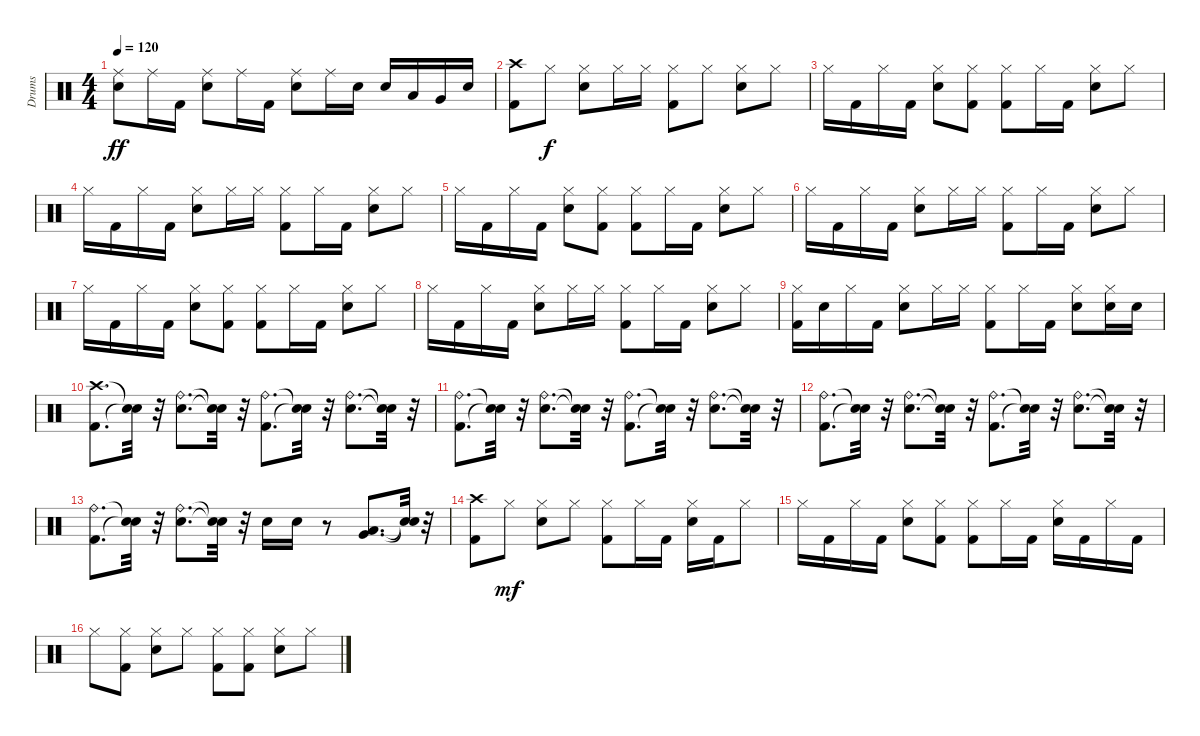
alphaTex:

\track ("Drums" "Drums") {instrument percussion}
\staff {score}
\articulation defaults
\ts (4 4)
\tempo 120
\clef neutral
\ks c
("Ride (middle)" "Snare (hit) 2").8{dy ff} "Ride (middle)".16 "Kick (hit) 2".16 ("Snare (hit) 2" "Ride (middle)").8 "Ride (middle)".16 "Kick (hit) 2".16 ("Ride (middle)" "Snare (hit) 2").8 "Ride (middle)".16 "Snare (hit) 2".16 "Snare (hit) 2".16 "Low Tom (hit)".16 "Very Low Tom (hit)".16 "Snare (hit) 2".16 |
("Crash high (hit)" "Kick (hit) 2").8 "Hi-Hat (closed)".8{dy f} ("Snare (hit) 2" "Hi-Hat (closed)").8 "Hi-Hat (closed)".16 "Hi-Hat (closed)".16 ("Hi-Hat (closed)" "Kick (hit) 2").8 "Hi-Hat (closed)".8 ("Snare (hit) 2" "Hi-Hat (closed)").8 "Hi-Hat (closed)".8 |
"Hi-Hat (closed)".16 "Kick (hit) 2".16 "Hi-Hat (closed)".16 "Kick (hit) 2".16 ("Snare (hit) 2" "Hi-Hat (closed)").8 ("Hi-Hat (closed)" "Kick (hit) 2").8 ("Hi-Hat (closed)" "Kick (hit) 2").8 "Hi-Hat (closed)".16 "Kick (hit) 2".16 ("Hi-Hat (closed)" "Snare (hit) 2").8 "Hi-Hat (closed)".8 |
"Hi-Hat (closed)".16 "Kick (hit) 2".16 "Hi-Hat (closed)".16 "Kick (hit) 2".16 ("Snare (hit) 2" "Hi-Hat (closed)").8 "Hi-Hat (closed)".16 "Hi-Hat (closed)".16 ("Kick (hit) 2" "Hi-Hat (closed)").8 "Hi-Hat (closed)".16 "Kick (hit) 2".16 ("Hi-Hat (closed)" "Snare (hit) 2").8 "Hi-Hat (closed)".8 |
"Hi-Hat (closed)".16 "Kick (hit) 2".16 "Hi-Hat (closed)".16 "Kick (hit) 2".16 ("Hi-Hat (closed)" "Snare (hit) 2").8 ("Kick (hit) 2" "Hi-Hat (closed)").8 ("Kick (hit) 2" "Hi-Hat (closed)").8 "Hi-Hat (closed)".16 "Kick (hit) 2".16 ("Hi-Hat (closed)" "Snare (hit) 2").8 "Hi-Hat (closed)".8 |
"Hi-Hat (closed)".16 "Kick (hit) 2".16 "Hi-Hat (closed)".16 "Kick (hit) 2".16 ("Hi-Hat (closed)" "Snare (hit) 2").8 "Hi-Hat (closed)".16 "Hi-Hat (closed)".16 ("Kick (hit) 2" "Hi-Hat (closed)").8 "Hi-Hat (closed)".16 "Kick (hit) 2".16 ("Hi-Hat (closed)" "Snare (hit) 2").8 "Hi-Hat (closed)".8 |
"Hi-Hat (closed)".16 "Kick (hit) 2".16 "Hi-Hat (closed)".16 "Kick (hit) 2".16 ("Snare (hit) 2" "Hi-Hat (closed)").8 ("Hi-Hat (closed)" "Kick (hit) 2").8 ("Hi-Hat (closed)" "Kick (hit) 2").8 "Hi-Hat (closed)".16 "Kick (hit) 2".16 ("Snare (hit) 2" "Hi-Hat (closed)").8 "Hi-Hat (closed)".8 |
"Hi-Hat (closed)".16 "Kick (hit) 2".16 "Hi-Hat (closed)".16 "Kick (hit) 2".16 ("Hi-Hat (closed)" "Snare (hit) 2").8 "Hi-Hat (closed)".16 "Hi-Hat (closed)".16 ("Kick (hit) 2" "Hi-Hat (closed)").8 "Hi-Hat (closed)".16 "Kick (hit) 2".16 ("Hi-Hat (closed)" "Snare (hit) 2").8 "Hi-Hat (closed)".8 |
("Kick (hit) 2" "Hi-Hat (closed)").16 "Snare (hit) 2".16 "Hi-Hat (closed)".16 "Kick (hit) 2".16 ("Snare (hit) 2" "Hi-Hat (closed)").8 "Hi-Hat (closed)".16 "Hi-Hat (closed)".16 ("Kick (hit) 2" "Hi-Hat (closed)").8 "Hi-Hat (closed)".16 "Kick (hit) 2".16 ("Hi-Hat (closed)" "Snare (hit) 2").8 ("Hi-Hat (closed)" "Snare (hit) 2").16 "Snare (hit) 2".16 |
("Kick (hit) 2" "Crash high (hit)").8{d} ("Snare (hit)"{t} "Snare (hit)"{t}).32 r.32 ("Ride (bell)" "Snare (hit) 2").8{d} ("Snare (hit)"{t} "Snare (hit)"{t}).32 r.32 ("Ride (bell)" "Kick (hit) 2").8{d} ("Snare (hit)"{t} "Snare (hit)"{t}).32 r.32 ("Ride (bell)" "Snare (hit) 2").8{d} ("Snare (hit)"{t} "Snare (hit)"{t}).32 r.32 |
("Kick (hit) 2" "Ride (bell)").8{d} ("Snare (hit)"{t} "Snare (hit)"{t}).32 r.32 ("Ride (bell)" "Snare (hit) 2").8{d} ("Snare (hit)"{t} "Snare (hit)"{t}).32 r.32 ("Kick (hit) 2" "Ride (bell)").8{d} ("Snare (hit)"{t} "Snare (hit)"{t}).32 r.32 ("Snare (hit) 2" "Ride (bell)").8{d} ("Snare (hit)"{t} "Snare (hit)"{t}).32 r.32 |
("Ride (bell)" "Kick (hit) 2").8{d} ("Snare (hit)"{t} "Snare (hit)"{t}).32 r.32 ("Snare (hit) 2" "Ride (bell)").8{d} ("Snare (hit)"{t} "Snare (hit)"{t}).32 r.32 ("Ride (bell)" "Kick (hit) 2").8{d} ("Snare (hit)"{t} "Snare (hit)"{t}).32 r.32 ("Snare (hit) 2" "Ride (bell)").8{d} ("Snare (hit)"{t} "Snare (hit)"{t}).32 r.32 |
("Kick (hit) 2" "Ride (bell)").8{d} ("Snare (hit)"{t} "Snare (hit)"{t}).32 r.32 ("Snare (hit) 2" "Ride (bell)").8{d} ("Snare (hit)"{t} "Snare (hit)"{t}).32 r.32 "Snare (hit) 2".16 "Snare (hit) 2".16 r.8 ("Low Floor Tom (hit)" "Very Low Tom (hit)").8{d} ("Snare (hit)"{t} "Snare (hit)"{t}).32 r.32 |
("Kick (hit) 2" "Crash high (hit)").8 "Hi-Hat (closed)".8{dy mf} ("Hi-Hat (closed)" "Snare (hit) 2").8 "Hi-Hat (closed)".8 ("Kick (hit) 2" "Hi-Hat (closed)").8 "Hi-Hat (closed)".16 "Kick (hit) 2".16 ("Hi-Hat (closed)" "Snare (hit) 2").16 "Kick (hit) 2".16 "Hi-Hat (closed)".8 |
"Hi-Hat (closed)".16 "Kick (hit) 2".16 "Hi-Hat (closed)".16 "Kick (hit) 2".16 ("Snare (hit) 2" "Hi-Hat (closed)").8 ("Hi-Hat (closed)" "Kick (hit) 2").8 ("Hi-Hat (closed)" "Kick (hit) 2").8 "Hi-Hat (closed)".16 "Kick (hit) 2".16 ("Hi-Hat (closed)" "Snare (hit) 2").16 "Kick (hit) 2".16 "Hi-Hat (closed)".16 "Kick (hit) 2".16 |
"Hi-Hat (closed)".8 ("Kick (hit) 2" "Hi-Hat (closed)").8 ("Hi-Hat (closed)" "Snare (hit) 2").8 "Hi-Hat (closed)".8 ("Kick (hit) 2" "Hi-Hat (closed)").8 ("Hi-Hat (closed)" "Kick (hit) 2").8 ("Hi-Hat (closed)" "Snare (hit) 2").8 "Hi-Hat (closed)".8
